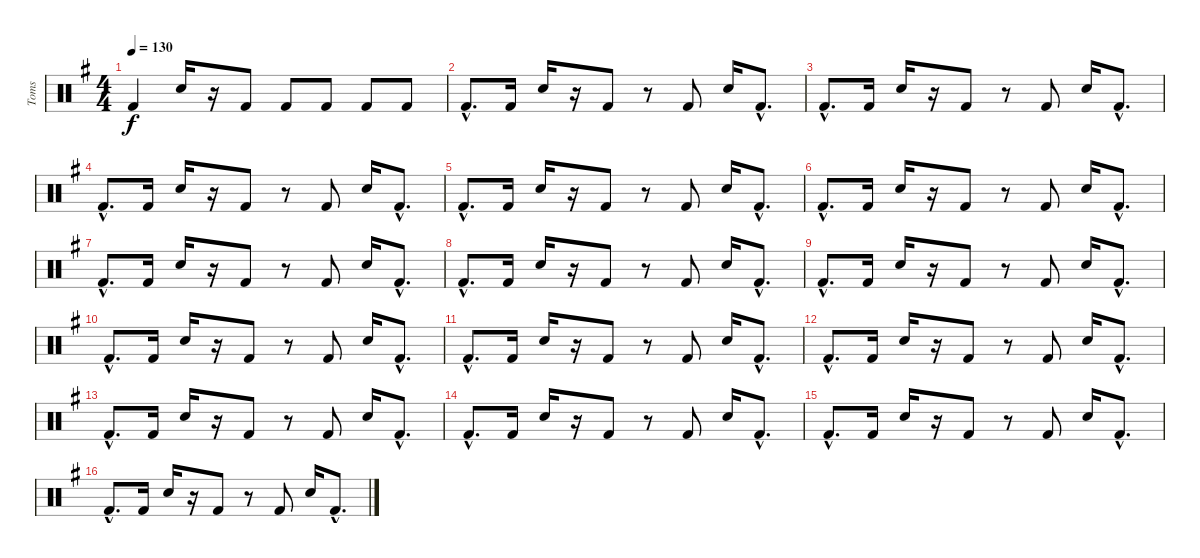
\track ("Toms" "Toms") {instrument percussion}
\staff {score}
\articulation defaults
\ts (4 4)
\tempo 130
\clef neutral
\ks g "Kick (hit) 2".4{dy f} "Snare (hit) 2".16
r.16 "Kick (hit) 2".8 "Kick (hit) 2".8 "Kick (hit) 2".8 "Kick (hit) 2".8 "Kick (hit) 2".8 |
"Kick (hit) 2"{hac}.8{d} "Kick (hit) 2".16 "Snare (hit) 2".16 r.16 "Kick (hit) 2".8 r.8 "Kick (hit) 2".8 "Snare (hit) 2".16 "Kick (hit) 2"{hac}.8{d} |
"Kick (hit) 2"{hac}.8{d} "Kick (hit) 2".16 "Snare (hit) 2".16 r.16 "Kick (hit) 2".8 r.8 "Kick (hit) 2".8 "Snare (hit) 2".16 "Kick (hit) 2"{hac}.8{d} |
"Kick (hit) 2"{hac}.8{d} "Kick (hit) 2".16 "Snare (hit) 2".16 r.16 "Kick (hit) 2".8 r.8 "Kick (hit) 2".8 "Snare (hit) 2".16 "Kick (hit) 2"{hac}.8{d} |
"Kick (hit) 2"{hac}.8{d} "Kick (hit) 2".16 "Snare (hit) 2".16 r.16 "Kick (hit) 2".8 r.8 "Kick (hit) 2".8 "Snare (hit) 2".16 "Kick (hit) 2"{hac}.8{d} |
"Kick (hit) 2"{hac}.8{d} "Kick (hit) 2".16 "Snare (hit) 2".16 r.16 "Kick (hit) 2".8 r.8 "Kick (hit) 2".8 "Snare (hit) 2".16 "Kick (hit) 2"{hac}.8{d} |
"Kick (hit) 2"{hac}.8{d} "Kick (hit) 2".16 "Snare (hit) 2".16 r.16 "Kick (hit) 2".8 r.8 "Kick (hit) 2".8 "Snare (hit) 2".16 "Kick (hit) 2"{hac}.8{d} |
"Kick (hit) 2"{hac}.8{d} "Kick (hit) 2".16 "Snare (hit) 2".16 r.16 "Kick (hit) 2".8 r.8 "Kick (hit) 2".8 "Snare (hit) 2".16 "Kick (hit) 2"{hac}.8{d} |
"Kick (hit) 2"{hac}.8{d} "Kick (hit) 2".16 "Snare (hit) 2".16 r.16 "Kick (hit) 2".8 r.8 "Kick (hit) 2".8 "Snare (hit) 2".16 "Kick (hit) 2"{hac}.8{d} |
"Kick (hit) 2"{hac}.8{d} "Kick (hit) 2".16 "Snare (hit) 2".16 r.16 "Kick (hit) 2".8 r.8 "Kick (hit) 2".8 "Snare (hit) 2".16 "Kick (hit) 2"{hac}.8{d} |
"Kick (hit) 2"{hac}.8{d} "Kick (hit) 2".16 "Snare (hit) 2".16 r.16 "Kick (hit) 2".8 r.8 "Kick (hit) 2".8 "Snare (hit) 2".16 "Kick (hit) 2"{hac}.8{d} |
"Kick (hit) 2"{hac}.8{d} "Kick (hit) 2".16 "Snare (hit) 2".16 r.16 "Kick (hit) 2".8 r.8 "Kick (hit) 2".8 "Snare (hit) 2".16 "Kick (hit) 2"{hac}.8{d} |
"Kick (hit) 2"{hac}.8{d} "Kick (hit) 2".16 "Snare (hit) 2".16 r.16 "Kick (hit) 2".8 r.8 "Kick (hit) 2".8 "Snare (hit) 2".16 "Kick (hit) 2"{hac}.8{d} |
"Kick (hit) 2"{hac}.8{d} "Kick (hit) 2".16 "Snare (hit) 2".16 r.16 "Kick (hit) 2".8 r.8 "Kick (hit) 2".8 "Snare (hit) 2".16 "Kick (hit) 2"{hac}.8{d} |
"Kick (hit) 2"{hac}.8{d} "Kick (hit) 2".16 "Snare (hit) 2".16 r.16 "Kick (hit) 2".8 r.8 "Kick (hit) 2".8 "Snare (hit) 2".16 "Kick (hit) 2"{hac}.8{d} |
"Kick (hit) 2"{hac}.8{d} "Kick (hit) 2".16 "Snare (hit) 2".16 r.16 "Kick (hit) 2".8 r.8 "Kick (hit) 2".8 "Snare (hit) 2".16 "Kick (hit) 2"{hac}.8{d}
